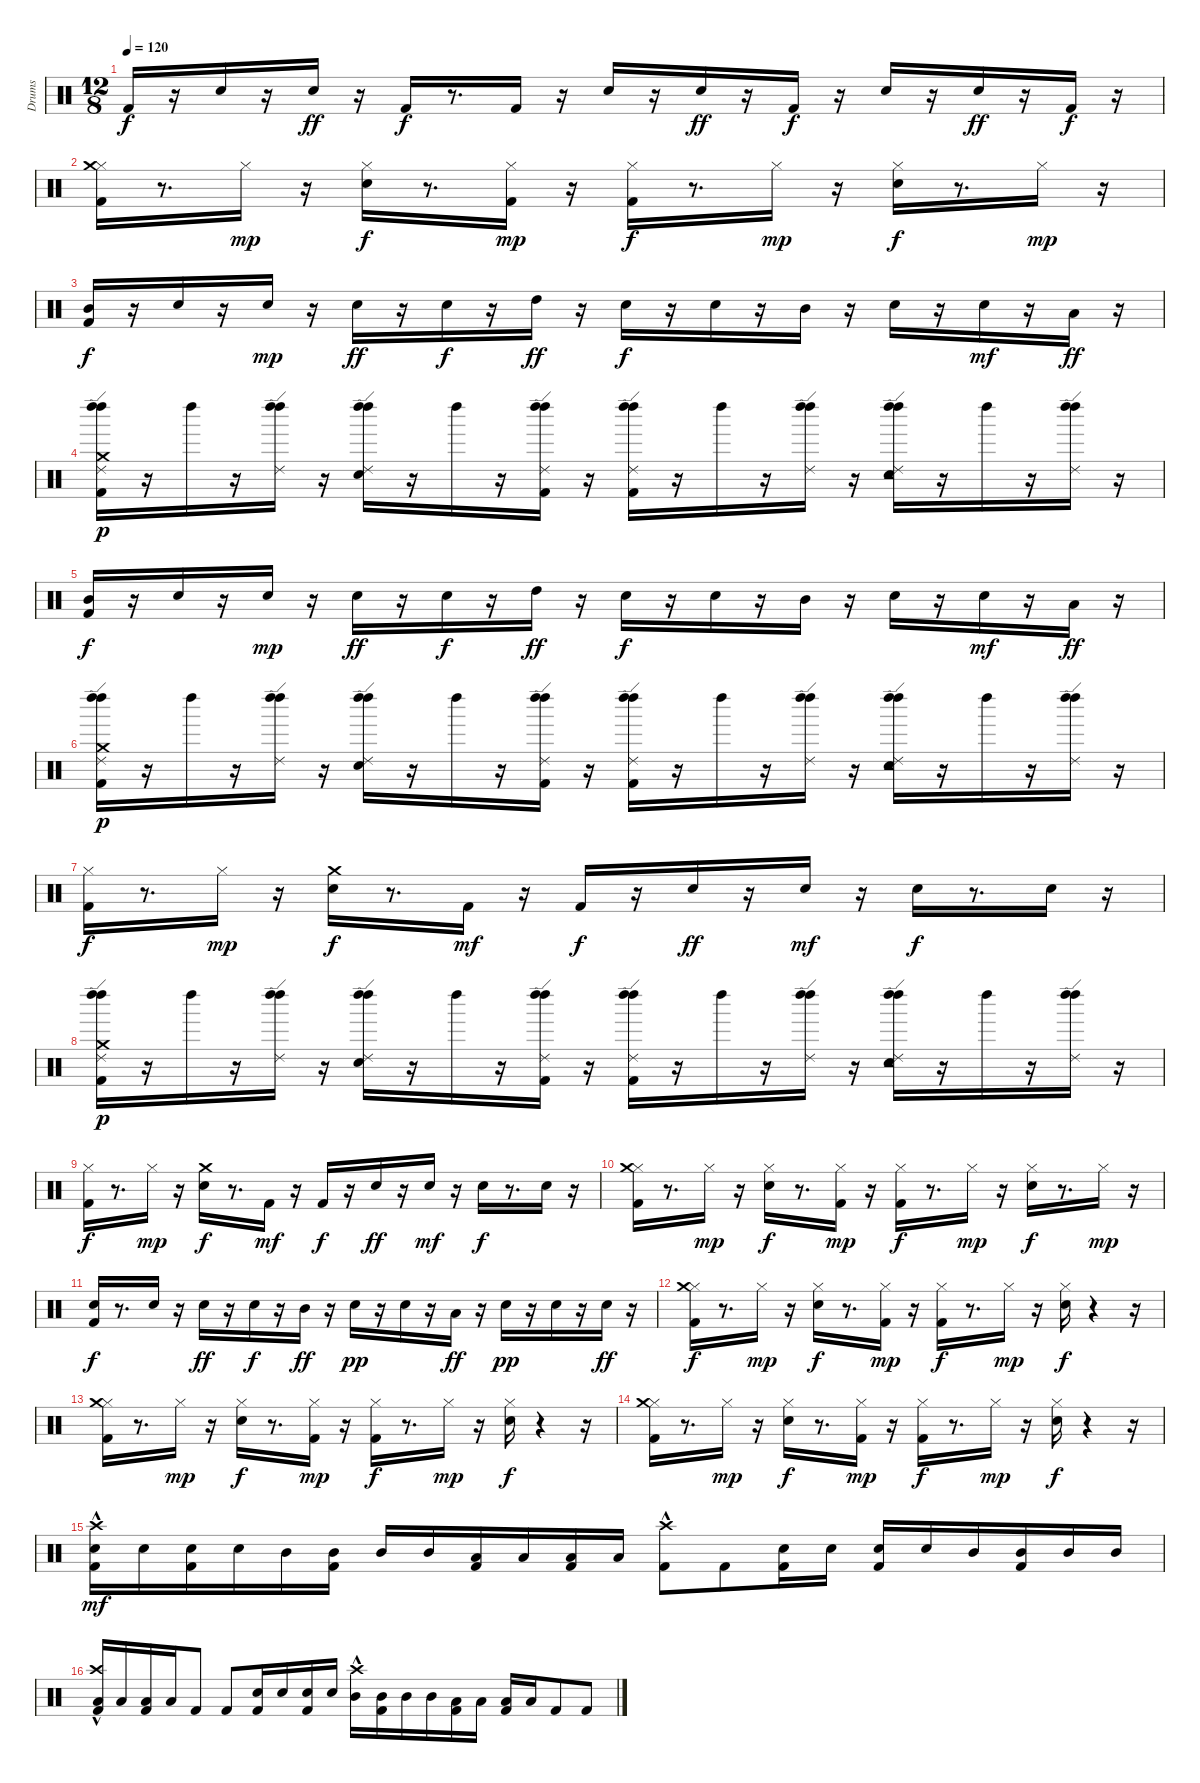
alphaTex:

\track ("Drums" "Drums") {instrument percussion}
\staff {score}
\articulation defaults
\ts (12 8)
\tempo 120
\clef neutral
\ks c "Kick (hit) 2".16{dy f}
r.16 "Snare (hit) 2".16 r.16 "Snare (hit) 2".16{dy ff} r.16 "Kick (hit) 2".16{dy f} r.8{d} "Kick (hit) 2".16 r.16 "Snare (hit) 2".16 r.16 "Snare (hit) 2".16{dy ff} r.16 "Kick (hit) 2".16{dy f} r.16 "Snare (hit) 2".16 r.16 "Snare (hit) 2".16{dy ff} r.16 "Kick (hit) 2".16{dy f} r.16 |
("Kick (hit) 2" "Hi-Hat (closed)" "Crash medium (hit)").16 r.8{d} "Hi-Hat (closed)".16{dy mp} r.16 ("Snare (hit) 2" "Hi-Hat (closed)").16{dy f} r.8{d} ("Kick (hit) 2" "Hi-Hat (closed)").16{dy mp} r.16 ("Kick (hit) 2" "Hi-Hat (closed)").16{dy f} r.8{d} "Hi-Hat (closed)".16{dy mp} r.16 ("Snare (hit) 2" "Hi-Hat (closed)").16{dy f} r.8{d} "Hi-Hat (closed)".16{dy mp} r.16 |
("Kick (hit) 2" "Mid Tom (hit)").16{dy f} r.16 "Snare (hit) 2".16 r.16 "Snare (hit) 2".16{dy mp} r.16 "Snare (hit) 2".16{dy ff} r.16 "Snare (hit) 2".16{dy f} r.16 "High Tom (hit)".16{dy ff} r.16 "Snare (hit) 2".16{dy f} r.16 "Snare (hit) 2".16 r.16 "Mid Tom (hit)".16 r.16 "Snare (hit) 2".16 r.16 "Snare (hit) 2".16{dy mf} r.16 "Low Floor Tom (hit)".16{dy ff} r.16 |
("Kick (hit) 2" "Ride (edge) 2" "Crash medium (hit)" "Left Maraca (hit)" "Left Maraca (hit)").16{dy p} r.16 "Left Maraca (hit)".16 r.16 ("Ride (edge) 2" "Left Maraca (hit)" "Left Maraca (hit)").16 r.16 ("Snare (hit) 2" "Ride (edge) 2" "Left Maraca (hit)" "Left Maraca (hit)").16 r.16 "Left Maraca (hit)".16 r.16 ("Kick (hit) 2" "Ride (edge) 2" "Left Maraca (hit)" "Left Maraca (hit)").16 r.16 ("Kick (hit) 2" "Ride (edge) 2" "Left Maraca (hit)" "Left Maraca (hit)").16 r.16 "Left Maraca (hit)".16 r.16 ("Ride (edge) 2" "Left Maraca (hit)" "Left Maraca (hit)").16 r.16 ("Snare (hit) 2" "Ride (edge) 2" "Tambourine (hit)" "Left Maraca (hit)" "Left Maraca (hit)").16 r.16 "Left Maraca (hit)".16 r.16 ("Ride (edge) 2" "Left Maraca (hit)" "Left Maraca (hit)").16 r.16 |
("Kick (hit) 2" "Mid Tom (hit)").16{dy f} r.16 "Snare (hit) 2".16 r.16 "Snare (hit) 2".16{dy mp} r.16 "Snare (hit) 2".16{dy ff} r.16 "Snare (hit) 2".16{dy f} r.16 "High Tom (hit)".16{dy ff} r.16 "Snare (hit) 2".16{dy f} r.16 "Snare (hit) 2".16 r.16 "Mid Tom (hit)".16 r.16 "Snare (hit) 2".16 r.16 "Snare (hit) 2".16{dy mf} r.16 "Low Floor Tom (hit)".16{dy ff} r.16 |
("Kick (hit) 2" "Ride (edge) 2" "Crash medium (hit)" "Left Maraca (hit)" "Left Maraca (hit)").16{dy p} r.16 "Left Maraca (hit)".16 r.16 ("Ride (edge) 2" "Left Maraca (hit)" "Left Maraca (hit)").16 r.16 ("Snare (hit) 2" "Ride (edge) 2" "Left Maraca (hit)" "Left Maraca (hit)").16 r.16 "Left Maraca (hit)".16 r.16 ("Kick (hit) 2" "Ride (edge) 2" "Left Maraca (hit)" "Left Maraca (hit)").16 r.16 ("Kick (hit) 2" "Ride (edge) 2" "Left Maraca (hit)" "Left Maraca (hit)").16 r.16 "Left Maraca (hit)".16 r.16 ("Ride (edge) 2" "Left Maraca (hit)" "Left Maraca (hit)").16 r.16 ("Snare (hit) 2" "Ride (edge) 2" "Tambourine (hit)" "Left Maraca (hit)" "Left Maraca (hit)").16 r.16 "Left Maraca (hit)".16 r.16 ("Ride (edge) 2" "Left Maraca (hit)" "Left Maraca (hit)").16 r.16 |
("Kick (hit) 2" "Hi-Hat (closed)").16{dy f} r.8{d} "Hi-Hat (closed)".16{dy mp} r.16 ("Snare (hit) 2" "Crash medium (hit)").16{dy f} r.8{d} "Kick (hit) 2".16{dy mf} r.16 "Kick (hit) 2".16{dy f} r.16 "Snare (hit) 2".16{dy ff} r.16 "Snare (hit) 2".16{dy mf} r.16 "Snare (hit) 2".16{dy f} r.8{d} "Snare (hit) 2".16 r.16 |
("Kick (hit) 2" "Ride (edge) 2" "Crash medium (hit)" "Left Maraca (hit)" "Left Maraca (hit)").16{dy p} r.16 "Left Maraca (hit)".16 r.16 ("Ride (edge) 2" "Left Maraca (hit)" "Left Maraca (hit)").16 r.16 ("Snare (hit) 2" "Ride (edge) 2" "Left Maraca (hit)" "Left Maraca (hit)").16 r.16 "Left Maraca (hit)".16 r.16 ("Kick (hit) 2" "Ride (edge) 2" "Left Maraca (hit)" "Left Maraca (hit)").16 r.16 ("Kick (hit) 2" "Ride (edge) 2" "Left Maraca (hit)" "Left Maraca (hit)").16 r.16 "Left Maraca (hit)".16 r.16 ("Ride (edge) 2" "Left Maraca (hit)" "Left Maraca (hit)").16 r.16 ("Snare (hit) 2" "Ride (edge) 2" "Tambourine (hit)" "Left Maraca (hit)" "Left Maraca (hit)").16 r.16 "Left Maraca (hit)".16 r.16 ("Ride (edge) 2" "Left Maraca (hit)" "Left Maraca (hit)").16 r.16 |
("Kick (hit) 2" "Hi-Hat (closed)").16{dy f} r.8{d} "Hi-Hat (closed)".16{dy mp} r.16 ("Snare (hit) 2" "Crash medium (hit)").16{dy f} r.8{d} "Kick (hit) 2".16{dy mf} r.16 "Kick (hit) 2".16{dy f} r.16 "Snare (hit) 2".16{dy ff} r.16 "Snare (hit) 2".16{dy mf} r.16 "Snare (hit) 2".16{dy f} r.8{d} "Snare (hit) 2".16 r.16 |
("Kick (hit) 2" "Hi-Hat (closed)" "Crash medium (hit)").16 r.8{d} "Hi-Hat (closed)".16{dy mp} r.16 ("Snare (hit) 2" "Hi-Hat (closed)").16{dy f} r.8{d} ("Kick (hit) 2" "Hi-Hat (closed)").16{dy mp} r.16 ("Kick (hit) 2" "Hi-Hat (closed)").16{dy f} r.8{d} "Hi-Hat (closed)".16{dy mp} r.16 ("Snare (hit) 2" "Hi-Hat (closed)").16{dy f} r.8{d} "Hi-Hat (closed)".16{dy mp} r.16 |
("Kick (hit) 2" "Snare (hit) 2").16{dy f} r.8{d} "Snare (hit) 2".16 r.16 "Snare (hit) 2".16{dy ff} r.16 "Snare (hit) 2".16{dy f} r.16 "Mid Tom (hit)".16{dy ff} r.16 "Snare (hit) 2".16{dy pp} r.16 "Snare (hit) 2".16 r.16 "Low Floor Tom (hit)".16{dy ff} r.16 "Snare (hit) 2".16{dy pp} r.16 "Snare (hit) 2".16 r.16 "Snare (hit) 2".16{dy ff} r.16 |
("Kick (hit) 2" "Hi-Hat (closed)" "Crash medium (hit)").16{dy f} r.8{d} "Hi-Hat (closed)".16{dy mp} r.16 ("Snare (hit) 2" "Hi-Hat (closed)").16{dy f} r.8{d} ("Kick (hit) 2" "Hi-Hat (closed)").16{dy mp} r.16 ("Kick (hit) 2" "Hi-Hat (closed)").16{dy f} r.8{d} "Hi-Hat (closed)".16{dy mp} r.16 ("Snare (hit) 2" "Hi-Hat (closed)").16{dy f} r.4 r.16 |
("Kick (hit) 2" "Hi-Hat (closed)" "Crash medium (hit)").16 r.8{d} "Hi-Hat (closed)".16{dy mp} r.16 ("Snare (hit) 2" "Hi-Hat (closed)").16{dy f} r.8{d} ("Kick (hit) 2" "Hi-Hat (closed)").16{dy mp} r.16 ("Kick (hit) 2" "Hi-Hat (closed)").16{dy f} r.8{d} "Hi-Hat (closed)".16{dy mp} r.16 ("Snare (hit) 2" "Hi-Hat (closed)").16{dy f} r.4 r.16 |
("Kick (hit) 2" "Hi-Hat (closed)" "Crash medium (hit)").16 r.8{d} "Hi-Hat (closed)".16{dy mp} r.16 ("Snare (hit) 2" "Hi-Hat (closed)").16{dy f} r.8{d} ("Kick (hit) 2" "Hi-Hat (closed)").16{dy mp} r.16 ("Kick (hit) 2" "Hi-Hat (closed)").16{dy f} r.8{d} "Hi-Hat (closed)".16{dy mp} r.16 ("Snare (hit) 2" "Hi-Hat (closed)").16{dy f} r.4 r.16 |
("Kick (hit) 2" "Snare (hit) 2" "Crash high (hit)"{hac}).16{dy mf} "Snare (hit) 2".16 ("Kick (hit) 2" "Snare (hit) 2").16 "Snare (hit) 2".16 "Mid Tom (hit)".16 ("Kick (hit) 2" "Mid Tom (hit)").16 "Mid Tom (hit)".16 "Mid Tom (hit)".16 ("Kick (hit) 2" "Low Tom (hit)").16 "Low Tom (hit)".16 ("Kick (hit) 2" "Low Tom (hit)").16 "Low Tom (hit)".16 ("Kick (hit) 2" "Crash high (hit)"{hac}).8 "Kick (hit) 2".8 ("Kick (hit) 2" "Snare (hit) 2").16 "Snare (hit) 2".16 ("Kick (hit) 2" "Snare (hit) 2").16 "Snare (hit) 2".16 "Mid Tom (hit)".16 ("Kick (hit) 2" "Mid Tom (hit)").16 "Mid Tom (hit)".16 "Mid Tom (hit)".16 |
("Kick (hit) 2" "Low Tom (hit)" "Crash high (hit)"{hac}).16 "Low Tom (hit)".16 ("Kick (hit) 2" "Low Tom (hit)").16 "Low Tom (hit)".16 "Kick (hit) 2".8 "Kick (hit) 2".8 ("Kick (hit) 2" "Snare (hit) 2").16 "Snare (hit) 2".16 ("Kick (hit) 2" "Snare (hit) 2").16 "Snare (hit) 2".16 ("Mid Tom (hit)" "Crash high (hit)"{hac}).16 ("Kick (hit) 2" "Mid Tom (hit)").16 "Mid Tom (hit)".16 "Mid Tom (hit)".16 ("Kick (hit) 2" "Low Tom (hit)").16 "Low Tom (hit)".16 ("Kick (hit) 2" "Low Tom (hit)").16 "Low Tom (hit)".16 "Kick (hit) 2".8 "Kick (hit) 2".8
